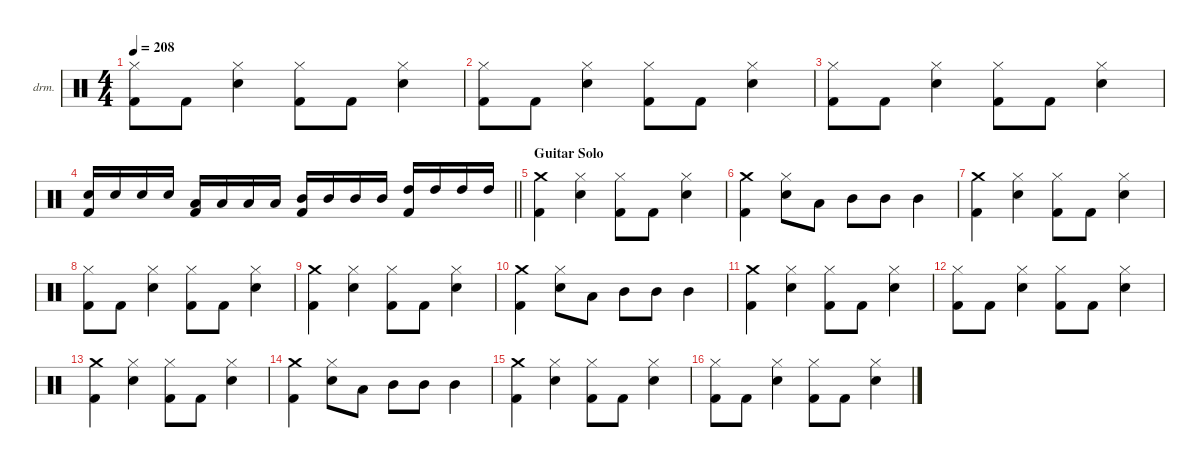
\defaultSystemsLayout 4
\hideDynamics
\bracketExtendMode nobrackets
\firstSystemTrackNameOrientation horizontal
\otherSystemsTrackNameOrientation horizontal
\track ("Drums" "drm.") {instrument percussion}
\staff {score}
\articulation defaults
\ts (4 4)
\tempo 208
\clef neutral
\ks c
("Kick (hit) 2" "Hi-Hat (closed)").8{dy f} "Kick (hit) 2".8 ("Snare (hit) 2" "Hi-Hat (closed)").4 ("Kick (hit) 2" "Hi-Hat (closed)").8 "Kick (hit) 2".8 ("Snare (hit) 2" "Hi-Hat (closed)").4 |
("Kick (hit) 2" "Hi-Hat (closed)").8 "Kick (hit) 2".8 ("Snare (hit) 2" "Hi-Hat (closed)").4 ("Kick (hit) 2" "Hi-Hat (closed)").8 "Kick (hit) 2".8 ("Snare (hit) 2" "Hi-Hat (closed)").4 |
("Kick (hit) 2" "Hi-Hat (closed)").8 "Kick (hit) 2".8 ("Snare (hit) 2" "Hi-Hat (closed)").4 ("Kick (hit) 2" "Hi-Hat (closed)").8 "Kick (hit) 2".8 ("Snare (hit) 2" "Hi-Hat (closed)").4 |
\barLineRight lightlight
("Snare (hit) 2" "Kick (hit) 2").16 "Snare (hit) 2".16 "Snare (hit) 2".16 "Snare (hit) 2".16 ("Low Tom (hit)" "Kick (hit) 2").16 "Low Tom (hit)".16 "Low Tom (hit)".16 "Low Tom (hit)".16 ("Mid Tom (hit)" "Kick (hit) 2").16 "Mid Tom (hit)".16 "Mid Tom (hit)".16 "Mid Tom (hit)".16 ("High Tom (hit)" "Kick (hit) 2").16 "High Tom (hit)".16 "High Tom (hit)".16 "High Tom (hit)".16 |
\section ("" "Guitar Solo")
("Kick (hit) 2" "Crash medium (hit)").4 ("Snare (hit) 2" "Hi-Hat (closed)").4 ("Kick (hit) 2" "Hi-Hat (closed)").8 "Kick (hit) 2".8 ("Snare (hit) 2" "Hi-Hat (closed)").4 |
("Kick (hit) 2" "Crash medium (hit)").4 ("Snare (hit) 2" "Hi-Hat (closed)").8 "Low Tom (hit)".8 "Mid Tom (hit)".8 "Mid Tom (hit)".8 "Mid Tom (hit)".4 |
("Kick (hit) 2" "Crash medium (hit)").4 ("Snare (hit) 2" "Hi-Hat (closed)").4 ("Kick (hit) 2" "Hi-Hat (closed)").8 "Kick (hit) 2".8 ("Snare (hit) 2" "Hi-Hat (closed)").4 |
("Hi-Hat (closed)" "Kick (hit) 2").8 "Kick (hit) 2".8 ("Snare (hit) 2" "Hi-Hat (closed)").4 ("Hi-Hat (closed)" "Kick (hit) 2").8 "Kick (hit) 2".8 ("Snare (hit) 2" "Hi-Hat (closed)").4 |
("Kick (hit) 2" "Crash medium (hit)").4 ("Snare (hit) 2" "Hi-Hat (closed)").4 ("Kick (hit) 2" "Hi-Hat (closed)").8 "Kick (hit) 2".8 ("Snare (hit) 2" "Hi-Hat (closed)").4 |
("Kick (hit) 2" "Crash medium (hit)").4 ("Snare (hit) 2" "Hi-Hat (closed)").8 "Low Tom (hit)".8 "Mid Tom (hit)".8 "Mid Tom (hit)".8 "Mid Tom (hit)".4 |
("Kick (hit) 2" "Crash medium (hit)").4 ("Snare (hit) 2" "Hi-Hat (closed)").4 ("Kick (hit) 2" "Hi-Hat (closed)").8 "Kick (hit) 2".8 ("Snare (hit) 2" "Hi-Hat (closed)").4 |
("Hi-Hat (closed)" "Kick (hit) 2").8 "Kick (hit) 2".8 ("Snare (hit) 2" "Hi-Hat (closed)").4 ("Hi-Hat (closed)" "Kick (hit) 2").8 "Kick (hit) 2".8 ("Snare (hit) 2" "Hi-Hat (closed)").4 |
("Kick (hit) 2" "Crash medium (hit)").4 ("Snare (hit) 2" "Hi-Hat (closed)").4 ("Kick (hit) 2" "Hi-Hat (closed)").8 "Kick (hit) 2".8 ("Snare (hit) 2" "Hi-Hat (closed)").4 |
("Kick (hit) 2" "Crash medium (hit)").4 ("Snare (hit) 2" "Hi-Hat (closed)").8 "Low Tom (hit)".8 "Mid Tom (hit)".8 "Mid Tom (hit)".8 "Mid Tom (hit)".4 |
("Kick (hit) 2" "Crash medium (hit)").4 ("Snare (hit) 2" "Hi-Hat (closed)").4 ("Kick (hit) 2" "Hi-Hat (closed)").8 "Kick (hit) 2".8 ("Snare (hit) 2" "Hi-Hat (closed)").4 |
("Hi-Hat (closed)" "Kick (hit) 2").8 "Kick (hit) 2".8 ("Snare (hit) 2" "Hi-Hat (closed)").4 ("Hi-Hat (closed)" "Kick (hit) 2").8 "Kick (hit) 2".8 ("Snare (hit) 2" "Hi-Hat (closed)").4
